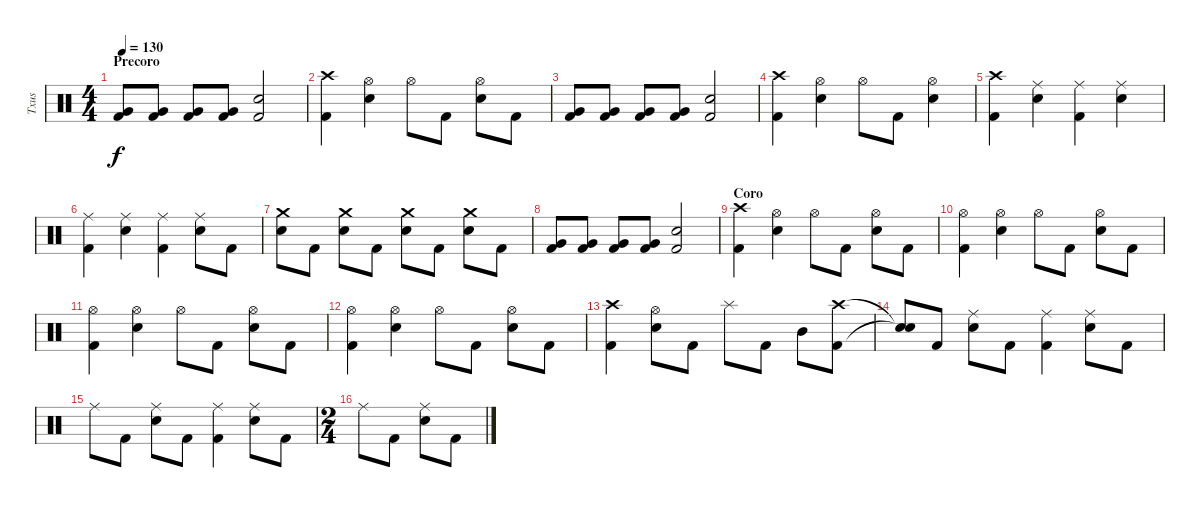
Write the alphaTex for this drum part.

\track ("Txus" "Txus") {instrument percussion}
\staff {score}
\articulation defaults
\ts (4 4)
\section ("" "Precoro")
\tempo 130
\clef neutral
\ks c
("Kick (hit) 2" "Very Low Tom (hit)").8{dy f} ("Kick (hit) 2" "Very Low Tom (hit)").8 ("Kick (hit) 2" "Very Low Tom (hit)").8 ("Kick (hit) 2" "Very Low Tom (hit)").8 ("Kick (hit) 2" "Electric Snare (hit)").2 |
("Kick (hit) 2" "Crash high (hit)").4 ("Electric Snare (hit)" "Hi-Hat (open)").4 "Hi-Hat (open)".8 "Kick (hit) 2".8 ("Electric Snare (hit)" "Hi-Hat (open)").8 "Kick (hit) 2".8 |
("Kick (hit) 2" "Very Low Tom (hit)").8 ("Kick (hit) 2" "Very Low Tom (hit)").8 ("Kick (hit) 2" "Very Low Tom (hit)").8 ("Kick (hit) 2" "Very Low Tom (hit)").8 ("Kick (hit) 2" "Electric Snare (hit)").2 |
("Kick (hit) 2" "Crash high (hit)").4 ("Electric Snare (hit)" "Hi-Hat (open)").4 "Hi-Hat (open)".8 "Kick (hit) 2".8 ("Electric Snare (hit)" "Hi-Hat (open)").4 |
("Kick (hit) 2" "Crash high (hit)").4 ("Electric Snare (hit)" "Ride (middle)").4 ("Kick (hit) 2" "Ride (middle)").4 ("Electric Snare (hit)" "Ride (middle)").4 |
("Kick (hit) 2" "Ride (middle)").4 ("Electric Snare (hit)" "Ride (middle)").4 ("Kick (hit) 2" "Ride (middle)").4 ("Electric Snare (hit)" "Ride (middle)").8 "Kick (hit) 2".8 |
("Electric Snare (hit)" "Crash medium (hit)").8 "Kick (hit) 2".8 ("Electric Snare (hit)" "Crash medium (hit)").8 "Kick (hit) 2".8 ("Electric Snare (hit)" "Crash medium (hit)").8 "Kick (hit) 2".8 ("Electric Snare (hit)" "Crash medium (hit)").8 "Kick (hit) 2".8 |
("Kick (hit) 2" "Very Low Tom (hit)").8 ("Kick (hit) 2" "Very Low Tom (hit)").8 ("Kick (hit) 2" "Very Low Tom (hit)").8 ("Kick (hit) 2" "Very Low Tom (hit)").8 ("Kick (hit) 2" "Electric Snare (hit)").2 |
\section ("" "Coro")
("Kick (hit) 2" "Crash high (hit)").4 ("Electric Snare (hit)" "Hi-Hat (open)").4 "Hi-Hat (open)".8 "Kick (hit) 2".8 ("Electric Snare (hit)" "Hi-Hat (open)").8 "Kick (hit) 2".8 |
("Kick (hit) 2" "Hi-Hat (open)").4 ("Electric Snare (hit)" "Hi-Hat (open)").4 "Hi-Hat (open)".8 "Kick (hit) 2".8 ("Electric Snare (hit)" "Hi-Hat (open)").8 "Kick (hit) 2".8 |
("Kick (hit) 2" "Hi-Hat (open)").4 ("Electric Snare (hit)" "Hi-Hat (open)").4 "Hi-Hat (open)".8 "Kick (hit) 2".8 ("Electric Snare (hit)" "Hi-Hat (open)").8 "Kick (hit) 2".8 |
("Kick (hit) 2" "Hi-Hat (open)").4 ("Electric Snare (hit)" "Hi-Hat (open)").4 "Hi-Hat (open)".8 "Kick (hit) 2".8 ("Electric Snare (hit)" "Hi-Hat (open)").8 "Kick (hit) 2".8 |
("Kick (hit) 2" "Crash high (hit)").4 ("Electric Snare (hit)" "Hi-Hat (open)").8 "Kick (hit) 2".8 "Splash (hit)".8 "Kick (hit) 2".8 "Mid Tom (hit)".8 ("Kick (hit) 2" "Crash high (hit)").8 |
("Snare (hit)"{t} "Snare (hit)"{t}).8 "Kick (hit) 2".8 ("Electric Snare (hit)" "Ride (middle)").8 "Kick (hit) 2".8 ("Kick (hit) 2" "Ride (middle)").4 ("Electric Snare (hit)" "Ride (middle)").8 "Kick (hit) 2".8 |
"Ride (middle)".8 "Kick (hit) 2".8 ("Electric Snare (hit)" "Ride (middle)").8 "Kick (hit) 2".8 ("Kick (hit) 2" "Ride (middle)").4 ("Electric Snare (hit)" "Ride (middle)").8 "Kick (hit) 2".8 |
\ts (2 4)
"Ride (middle)".8 "Kick (hit) 2".8 ("Electric Snare (hit)" "Ride (middle)").8 "Kick (hit) 2".8
